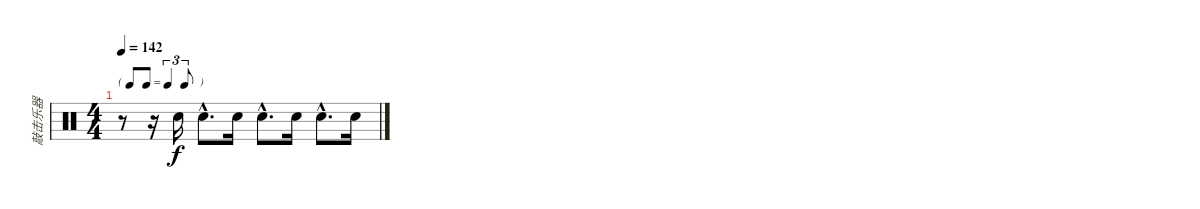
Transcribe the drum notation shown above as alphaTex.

\track ("敲击乐器" "敲击乐器") {instrument percussion}
\staff {score}
\articulation defaults
\ts (4 4)
\tf triplet8th
\tempo 142
\clef neutral
\ks c
r.8{dy f} r.16 "Electric Snare (hit)".16 "Electric Snare (hit)"{hac}.8{d} "Electric Snare (hit)".16 "Electric Snare (hit)"{hac}.8{d} "Electric Snare (hit)".16 "Electric Snare (hit)"{hac}.8{d} "Electric Snare (hit)".16
